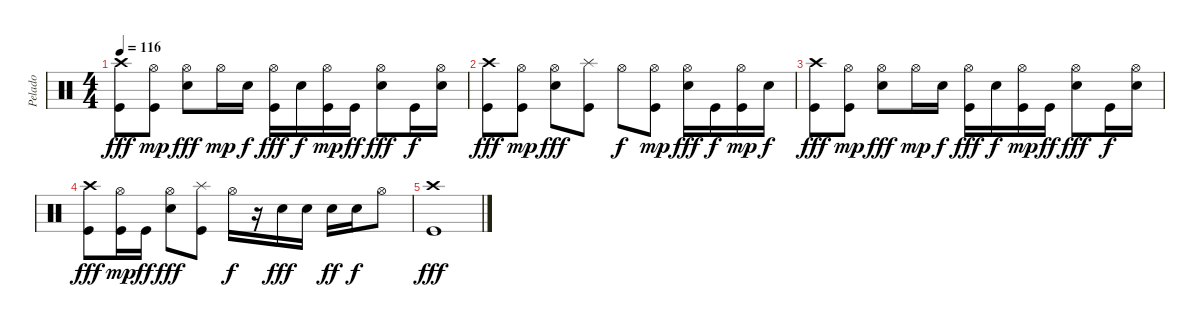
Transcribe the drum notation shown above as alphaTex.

\track ("Pelado" "Pelado") {instrument percussion}
\staff {score}
\articulation defaults
\ts (4 4)
\tempo 116
\clef neutral
\ks c
("Kick (hit)" "Crash high (hit)").8{dy fff} ("Kick (hit)" "Hi-Hat (open)").8{dy mp} ("Electric Snare (hit)" "Hi-Hat (open)").8{dy fff} "Hi-Hat (open)".16{dy mp} "Electric Snare (hit)".16{dy f} ("Kick (hit)" "Hi-Hat (open)").16{dy fff} "Electric Snare (hit)".16{dy f} ("Kick (hit)" "Hi-Hat (open)").16{dy mp} "Kick (hit)".16{dy ff} ("Electric Snare (hit)" "Hi-Hat (open)").8{dy fff} "Kick (hit)".16{dy f} ("Electric Snare (hit)" "Hi-Hat (open)").16 |
("Kick (hit)" "Crash high (hit)").8{dy fff} ("Kick (hit)" "Hi-Hat (open)").8{dy mp} ("Electric Snare (hit)" "Hi-Hat (open)").8{dy fff} ("Kick (hit)" "Splash (hit)").8 "Hi-Hat (open)".8{dy f} ("Kick (hit)" "Hi-Hat (open)").8{dy mp} ("Electric Snare (hit)" "Hi-Hat (open)").16{dy fff} "Kick (hit)".16{dy f} ("Kick (hit)" "Hi-Hat (open)").16{dy mp} "Electric Snare (hit)".16{dy f} |
("Kick (hit)" "Crash high (hit)").8{dy fff} ("Kick (hit)" "Hi-Hat (open)").8{dy mp} ("Electric Snare (hit)" "Hi-Hat (open)").8{dy fff} "Hi-Hat (open)".16{dy mp} "Electric Snare (hit)".16{dy f} ("Kick (hit)" "Hi-Hat (open)").16{dy fff} "Electric Snare (hit)".16{dy f} ("Kick (hit)" "Hi-Hat (open)").16{dy mp} "Kick (hit)".16{dy ff} ("Electric Snare (hit)" "Hi-Hat (open)").8{dy fff} "Kick (hit)".16{dy f} ("Electric Snare (hit)" "Hi-Hat (open)").16 |
("Kick (hit)" "Crash high (hit)").8{dy fff} ("Kick (hit)" "Hi-Hat (open)").16{dy mp} "Kick (hit)".16{dy ff} ("Electric Snare (hit)" "Hi-Hat (open)").8{dy fff} ("Kick (hit)" "Splash (hit)").8 "Hi-Hat (open)".16{dy f} r.16 "Electric Snare (hit)".16{dy fff} "Electric Snare (hit)".16 "Electric Snare (hit)".16{dy ff} "Electric Snare (hit)".16{dy f} "Hi-Hat (open)".8 |
("Kick (hit)" "Crash high (hit)").1{dy fff}
